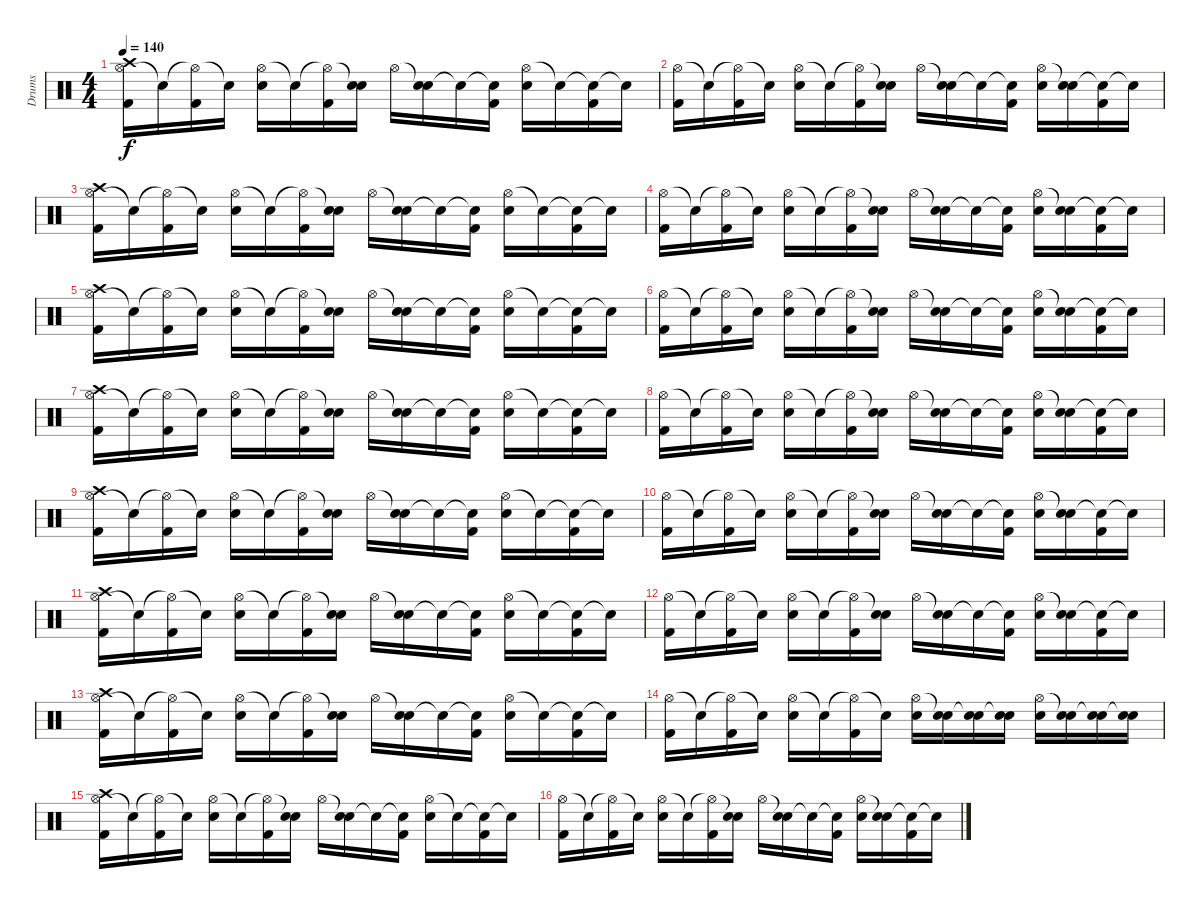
\track ("Drums" "Drums") {instrument percussion}
\staff {score}
\articulation defaults
\ts (4 4)
\tempo 140
\clef neutral
\ks c
("Hi-Hat (open)" "Kick (hit) 2" "Crash high (hit)").16{dy f} "Snare (hit)"{t}.16 ("Hi-Hat (open)"{t} "Kick (hit) 2").16 "Snare (hit)"{t}.16 ("Hi-Hat (open)" "Electric Snare (hit)").16 "Snare (hit)"{t}.16 ("Hi-Hat (open)"{t} "Kick (hit) 2").16 ("Snare (hit)"{t} "Electric Snare (hit)").16 "Hi-Hat (open)".16 ("Snare (hit)"{t} "Electric Snare (hit)").16 "Snare (hit)"{t}.16 ("Snare (hit)"{t} "Kick (hit) 2").16 ("Hi-Hat (open)" "Electric Snare (hit)").16 "Snare (hit)"{t}.16 ("Snare (hit)"{t} "Kick (hit) 2").16 "Snare (hit)"{t}.16 |
("Hi-Hat (open)" "Kick (hit) 2").16 "Snare (hit)"{t}.16 ("Hi-Hat (open)"{t} "Kick (hit) 2").16 "Snare (hit)"{t}.16 ("Hi-Hat (open)" "Electric Snare (hit)").16 "Snare (hit)"{t}.16 ("Hi-Hat (open)"{t} "Kick (hit) 2").16 ("Snare (hit)"{t} "Electric Snare (hit)").16 "Hi-Hat (open)".16 ("Snare (hit)"{t} "Electric Snare (hit)").16 "Snare (hit)"{t}.16 ("Snare (hit)"{t} "Kick (hit) 2").16 ("Hi-Hat (open)" "Electric Snare (hit)").16 ("Snare (hit)"{t} "Electric Snare (hit)").16 ("Snare (hit)"{t} "Kick (hit) 2").16 "Snare (hit)"{t}.16 |
("Hi-Hat (open)" "Kick (hit) 2" "Crash high (hit)").16 "Snare (hit)"{t}.16 ("Hi-Hat (open)"{t} "Kick (hit) 2").16 "Snare (hit)"{t}.16 ("Hi-Hat (open)" "Electric Snare (hit)").16 "Snare (hit)"{t}.16 ("Hi-Hat (open)"{t} "Kick (hit) 2").16 ("Snare (hit)"{t} "Electric Snare (hit)").16 "Hi-Hat (open)".16 ("Snare (hit)"{t} "Electric Snare (hit)").16 "Snare (hit)"{t}.16 ("Snare (hit)"{t} "Kick (hit) 2").16 ("Hi-Hat (open)" "Electric Snare (hit)").16 "Snare (hit)"{t}.16 ("Snare (hit)"{t} "Kick (hit) 2").16 "Snare (hit)"{t}.16 |
("Hi-Hat (open)" "Kick (hit) 2").16 "Snare (hit)"{t}.16 ("Hi-Hat (open)"{t} "Kick (hit) 2").16 "Snare (hit)"{t}.16 ("Hi-Hat (open)" "Electric Snare (hit)").16 "Snare (hit)"{t}.16 ("Hi-Hat (open)"{t} "Kick (hit) 2").16 ("Snare (hit)"{t} "Electric Snare (hit)").16 "Hi-Hat (open)".16 ("Snare (hit)"{t} "Electric Snare (hit)").16 "Snare (hit)"{t}.16 ("Snare (hit)"{t} "Kick (hit) 2").16 ("Hi-Hat (open)" "Electric Snare (hit)").16 ("Snare (hit)"{t} "Electric Snare (hit)").16 ("Snare (hit)"{t} "Kick (hit) 2").16 "Snare (hit)"{t}.16 |
("Hi-Hat (open)" "Kick (hit) 2" "Crash high (hit)").16 "Snare (hit)"{t}.16 ("Hi-Hat (open)"{t} "Kick (hit) 2").16 "Snare (hit)"{t}.16 ("Hi-Hat (open)" "Electric Snare (hit)").16 "Snare (hit)"{t}.16 ("Hi-Hat (open)"{t} "Kick (hit) 2").16 ("Snare (hit)"{t} "Electric Snare (hit)").16 "Hi-Hat (open)".16 ("Snare (hit)"{t} "Electric Snare (hit)").16 "Snare (hit)"{t}.16 ("Snare (hit)"{t} "Kick (hit) 2").16 ("Hi-Hat (open)" "Electric Snare (hit)").16 "Snare (hit)"{t}.16 ("Snare (hit)"{t} "Kick (hit) 2").16 "Snare (hit)"{t}.16 |
("Hi-Hat (open)" "Kick (hit) 2").16 "Snare (hit)"{t}.16 ("Hi-Hat (open)"{t} "Kick (hit) 2").16 "Snare (hit)"{t}.16 ("Hi-Hat (open)" "Electric Snare (hit)").16 "Snare (hit)"{t}.16 ("Hi-Hat (open)"{t} "Kick (hit) 2").16 ("Snare (hit)"{t} "Electric Snare (hit)").16 "Hi-Hat (open)".16 ("Snare (hit)"{t} "Electric Snare (hit)").16 "Snare (hit)"{t}.16 ("Snare (hit)"{t} "Kick (hit) 2").16 ("Hi-Hat (open)" "Electric Snare (hit)").16 ("Snare (hit)"{t} "Electric Snare (hit)").16 ("Snare (hit)"{t} "Kick (hit) 2").16 "Snare (hit)"{t}.16 |
("Hi-Hat (open)" "Kick (hit) 2" "Crash high (hit)").16 "Snare (hit)"{t}.16 ("Hi-Hat (open)"{t} "Kick (hit) 2").16 "Snare (hit)"{t}.16 ("Hi-Hat (open)" "Electric Snare (hit)").16 "Snare (hit)"{t}.16 ("Hi-Hat (open)"{t} "Kick (hit) 2").16 ("Snare (hit)"{t} "Electric Snare (hit)").16 "Hi-Hat (open)".16 ("Snare (hit)"{t} "Electric Snare (hit)").16 "Snare (hit)"{t}.16 ("Snare (hit)"{t} "Kick (hit) 2").16 ("Hi-Hat (open)" "Electric Snare (hit)").16 "Snare (hit)"{t}.16 ("Snare (hit)"{t} "Kick (hit) 2").16 "Snare (hit)"{t}.16 |
("Hi-Hat (open)" "Kick (hit) 2").16 "Snare (hit)"{t}.16 ("Hi-Hat (open)"{t} "Kick (hit) 2").16 "Snare (hit)"{t}.16 ("Hi-Hat (open)" "Electric Snare (hit)").16 "Snare (hit)"{t}.16 ("Hi-Hat (open)"{t} "Kick (hit) 2").16 ("Snare (hit)"{t} "Electric Snare (hit)").16 "Hi-Hat (open)".16 ("Snare (hit)"{t} "Electric Snare (hit)").16 "Snare (hit)"{t}.16 ("Snare (hit)"{t} "Kick (hit) 2").16 ("Hi-Hat (open)" "Electric Snare (hit)").16 ("Snare (hit)"{t} "Electric Snare (hit)").16 ("Snare (hit)"{t} "Kick (hit) 2").16 "Snare (hit)"{t}.16 |
("Hi-Hat (open)" "Kick (hit) 2" "Crash high (hit)").16 "Snare (hit)"{t}.16 ("Hi-Hat (open)"{t} "Kick (hit) 2").16 "Snare (hit)"{t}.16 ("Hi-Hat (open)" "Electric Snare (hit)").16 "Snare (hit)"{t}.16 ("Hi-Hat (open)"{t} "Kick (hit) 2").16 ("Snare (hit)"{t} "Electric Snare (hit)").16 "Hi-Hat (open)".16 ("Snare (hit)"{t} "Electric Snare (hit)").16 "Snare (hit)"{t}.16 ("Snare (hit)"{t} "Kick (hit) 2").16 ("Hi-Hat (open)" "Electric Snare (hit)").16 "Snare (hit)"{t}.16 ("Snare (hit)"{t} "Kick (hit) 2").16 "Snare (hit)"{t}.16 |
("Hi-Hat (open)" "Kick (hit) 2").16 "Snare (hit)"{t}.16 ("Hi-Hat (open)"{t} "Kick (hit) 2").16 "Snare (hit)"{t}.16 ("Hi-Hat (open)" "Electric Snare (hit)").16 "Snare (hit)"{t}.16 ("Hi-Hat (open)"{t} "Kick (hit) 2").16 ("Snare (hit)"{t} "Electric Snare (hit)").16 "Hi-Hat (open)".16 ("Snare (hit)"{t} "Electric Snare (hit)").16 "Snare (hit)"{t}.16 ("Snare (hit)"{t} "Kick (hit) 2").16 ("Hi-Hat (open)" "Electric Snare (hit)").16 ("Snare (hit)"{t} "Electric Snare (hit)").16 ("Snare (hit)"{t} "Kick (hit) 2").16 "Snare (hit)"{t}.16 |
("Hi-Hat (open)" "Kick (hit) 2" "Crash high (hit)").16 "Snare (hit)"{t}.16 ("Hi-Hat (open)"{t} "Kick (hit) 2").16 "Snare (hit)"{t}.16 ("Hi-Hat (open)" "Electric Snare (hit)").16 "Snare (hit)"{t}.16 ("Hi-Hat (open)"{t} "Kick (hit) 2").16 ("Snare (hit)"{t} "Electric Snare (hit)").16 "Hi-Hat (open)".16 ("Snare (hit)"{t} "Electric Snare (hit)").16 "Snare (hit)"{t}.16 ("Snare (hit)"{t} "Kick (hit) 2").16 ("Hi-Hat (open)" "Electric Snare (hit)").16 "Snare (hit)"{t}.16 ("Snare (hit)"{t} "Kick (hit) 2").16 "Snare (hit)"{t}.16 |
("Hi-Hat (open)" "Kick (hit) 2").16 "Snare (hit)"{t}.16 ("Hi-Hat (open)"{t} "Kick (hit) 2").16 "Snare (hit)"{t}.16 ("Hi-Hat (open)" "Electric Snare (hit)").16 "Snare (hit)"{t}.16 ("Hi-Hat (open)"{t} "Kick (hit) 2").16 ("Snare (hit)"{t} "Electric Snare (hit)").16 "Hi-Hat (open)".16 ("Snare (hit)"{t} "Electric Snare (hit)").16 "Snare (hit)"{t}.16 ("Snare (hit)"{t} "Kick (hit) 2").16 ("Hi-Hat (open)" "Electric Snare (hit)").16 ("Snare (hit)"{t} "Electric Snare (hit)").16 ("Snare (hit)"{t} "Kick (hit) 2").16 "Snare (hit)"{t}.16 |
("Hi-Hat (open)" "Kick (hit) 2" "Crash high (hit)").16 "Snare (hit)"{t}.16 ("Hi-Hat (open)"{t} "Kick (hit) 2").16 "Snare (hit)"{t}.16 ("Hi-Hat (open)" "Electric Snare (hit)").16 "Snare (hit)"{t}.16 ("Hi-Hat (open)"{t} "Kick (hit) 2").16 ("Snare (hit)"{t} "Electric Snare (hit)").16 "Hi-Hat (open)".16 ("Snare (hit)"{t} "Electric Snare (hit)").16 "Snare (hit)"{t}.16 ("Snare (hit)"{t} "Kick (hit) 2").16 ("Hi-Hat (open)" "Electric Snare (hit)").16 "Snare (hit)"{t}.16 ("Snare (hit)"{t} "Kick (hit) 2").16 "Snare (hit)"{t}.16 |
("Hi-Hat (open)" "Kick (hit) 2").16 "Snare (hit)"{t}.16 ("Hi-Hat (open)"{t} "Kick (hit) 2").16 "Snare (hit)"{t}.16 ("Hi-Hat (open)" "Electric Snare (hit)").16 "Snare (hit)"{t}.16 ("Hi-Hat (open)"{t} "Kick (hit) 2").16 "Snare (hit)"{t}.16 ("Hi-Hat (open)" "Electric Snare (hit)").16 ("Snare (hit)"{t} "Electric Snare (hit)").16 ("Snare (hit)"{t} "Electric Snare (hit)").16 ("Snare (hit)"{t} "Electric Snare (hit)").16 ("Hi-Hat (open)" "Electric Snare (hit)").16 ("Snare (hit)"{t} "Electric Snare (hit)").16 ("Snare (hit)"{t} "Electric Snare (hit)").16 ("Snare (hit)"{t} "Electric Snare (hit)").16 |
("Hi-Hat (open)" "Kick (hit) 2" "Crash high (hit)").16 "Snare (hit)"{t}.16 ("Hi-Hat (open)"{t} "Kick (hit) 2").16 "Snare (hit)"{t}.16 ("Hi-Hat (open)" "Electric Snare (hit)").16 "Snare (hit)"{t}.16 ("Hi-Hat (open)"{t} "Kick (hit) 2").16 ("Snare (hit)"{t} "Electric Snare (hit)").16 "Hi-Hat (open)".16 ("Snare (hit)"{t} "Electric Snare (hit)").16 "Snare (hit)"{t}.16 ("Snare (hit)"{t} "Kick (hit) 2").16 ("Hi-Hat (open)" "Electric Snare (hit)").16 "Snare (hit)"{t}.16 ("Snare (hit)"{t} "Kick (hit) 2").16 "Snare (hit)"{t}.16 |
("Hi-Hat (open)" "Kick (hit) 2").16 "Snare (hit)"{t}.16 ("Hi-Hat (open)"{t} "Kick (hit) 2").16 "Snare (hit)"{t}.16 ("Hi-Hat (open)" "Electric Snare (hit)").16 "Snare (hit)"{t}.16 ("Hi-Hat (open)"{t} "Kick (hit) 2").16 ("Snare (hit)"{t} "Electric Snare (hit)").16 "Hi-Hat (open)".16 ("Snare (hit)"{t} "Electric Snare (hit)").16 "Snare (hit)"{t}.16 ("Snare (hit)"{t} "Kick (hit) 2").16 ("Hi-Hat (open)" "Electric Snare (hit)").16 ("Snare (hit)"{t} "Electric Snare (hit)").16 ("Snare (hit)"{t} "Kick (hit) 2").16 "Snare (hit)"{t}.16
